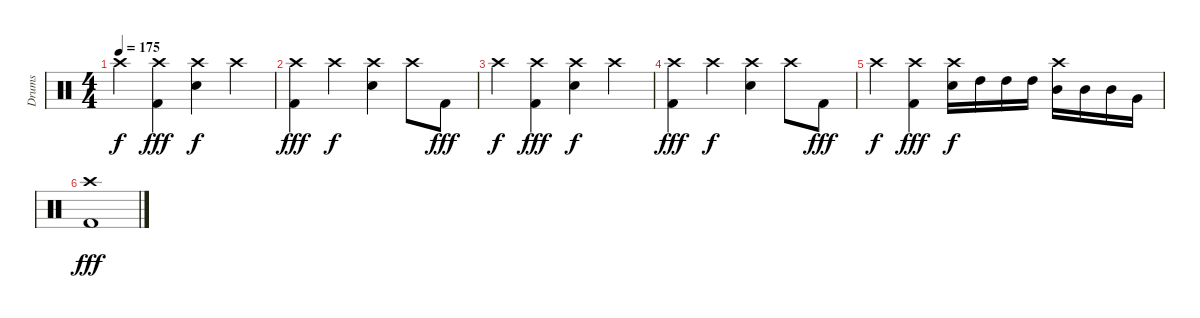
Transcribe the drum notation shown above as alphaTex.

\track ("Drums" "Drums") {instrument percussion}
\staff {score}
\articulation defaults
\ts (4 4)
\tempo 175
\clef neutral
\ks c "Crash high (hit)".4{dy f}
("Crash high (hit)" "Kick (hit) 2").4{dy fff} ("Crash high (hit)" "Electric Snare (hit)").4{dy f} "Crash high (hit)".4 |
("Crash high (hit)" "Kick (hit) 2").4{dy fff} "Crash high (hit)".4{dy f} ("Crash high (hit)" "Electric Snare (hit)").4 "Crash high (hit)".8 "Kick (hit) 2".8{dy fff} |
"Crash high (hit)".4{dy f} ("Crash high (hit)" "Kick (hit) 2").4{dy fff} ("Crash high (hit)" "Electric Snare (hit)").4{dy f} "Crash high (hit)".4 |
("Crash high (hit)" "Kick (hit) 2").4{dy fff} "Crash high (hit)".4{dy f} ("Crash high (hit)" "Electric Snare (hit)").4 "Crash high (hit)".8 "Kick (hit) 2".8{dy fff} |
"Crash high (hit)".4{dy f} ("Crash high (hit)" "Kick (hit) 2").4{dy fff} ("Crash high (hit)" "Electric Snare (hit)").16{dy f} "High Tom (hit)".16 "High Tom (hit)".16 "High Tom (hit)".16 ("Crash high (hit)" "Mid Tom (hit)").16 "Mid Tom (hit)".16 "Mid Tom (hit)".16 "Very Low Tom (hit)".16 |
("Crash high (hit)" "Kick (hit) 2").1{dy fff}
